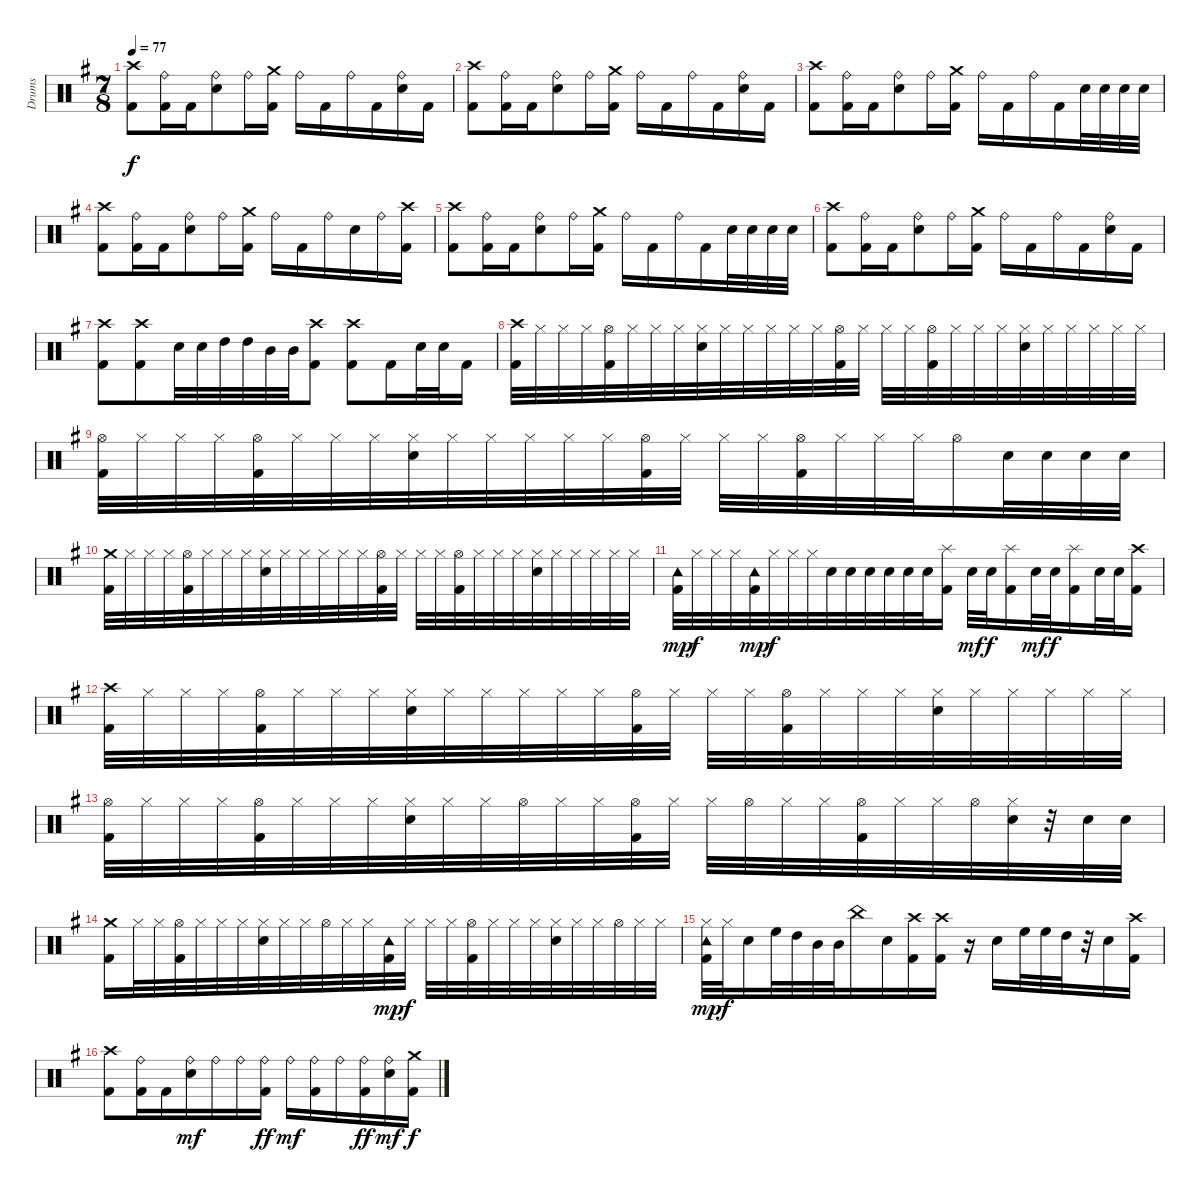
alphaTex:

\track ("Drums" "Drums") {instrument percussion}
\staff {score}
\articulation defaults
\ts (7 8)
\tempo 77
\clef neutral
\ks g
("Crash high (hit)" "Kick (hit) 2").8{dy f} ("Ride (bell)" "Kick (hit) 2").16 "Kick (hit) 2".16 ("Ride (bell)" "Electric Snare (hit)").8 "Ride (bell)".16 ("Kick (hit) 2" "Crash medium (hit)").16 "Ride (bell)".16 "Kick (hit) 2".16 "Ride (bell)".16 "Kick (hit) 2".16 ("Ride (bell)" "Electric Snare (hit)").16 "Kick (hit) 2".16 |
("Crash high (hit)" "Kick (hit) 2").8 ("Ride (bell)" "Kick (hit) 2").16 "Kick (hit) 2".16 ("Ride (bell)" "Electric Snare (hit)").8 "Ride (bell)".16 ("Kick (hit) 2" "Crash medium (hit)").16 "Ride (bell)".16 "Kick (hit) 2".16 "Ride (bell)".16 "Kick (hit) 2".16 ("Ride (bell)" "Electric Snare (hit)").16 "Kick (hit) 2".16 |
("Kick (hit) 2" "Crash high (hit)").8 ("Ride (bell)" "Kick (hit) 2").16 "Kick (hit) 2".16 ("Ride (bell)" "Electric Snare (hit)").8 "Ride (bell)".16 ("Kick (hit) 2" "Crash medium (hit)").16 "Ride (bell)".16 "Kick (hit) 2".16 "Ride (bell)".16 "Kick (hit) 2".16 "Electric Snare (hit)".32 "Electric Snare (hit)".32 "Electric Snare (hit)".32 "Electric Snare (hit)".32 |
("Crash high (hit)" "Kick (hit) 2").8 ("Ride (bell)" "Kick (hit) 2").16 "Kick (hit) 2".16 ("Ride (bell)" "Electric Snare (hit)").8 "Ride (bell)".16 ("Kick (hit) 2" "Crash medium (hit)").16 "Ride (bell)".16 "Kick (hit) 2".16 "Ride (bell)".16 "Electric Snare (hit)".16 "Ride (bell)".16 ("Kick (hit) 2" "Crash high (hit)").16 |
("Kick (hit) 2" "Crash high (hit)").8 ("Ride (bell)" "Kick (hit) 2").16 "Kick (hit) 2".16 ("Ride (bell)" "Electric Snare (hit)").8 "Ride (bell)".16 ("Kick (hit) 2" "Crash medium (hit)").16 "Ride (bell)".16 "Kick (hit) 2".16 "Ride (bell)".16 "Kick (hit) 2".16 "Electric Snare (hit)".32 "Electric Snare (hit)".32 "Electric Snare (hit)".32 "Electric Snare (hit)".32 |
("Kick (hit) 2" "Crash high (hit)").8 ("Ride (bell)" "Kick (hit) 2").16 "Kick (hit) 2".16 ("Ride (bell)" "Electric Snare (hit)").8 "Ride (bell)".16 ("Kick (hit) 2" "Crash medium (hit)").16 "Ride (bell)".16 "Kick (hit) 2".16 "Ride (bell)".16 "Kick (hit) 2".16 ("Ride (bell)" "Electric Snare (hit)").16 "Kick (hit) 2".16 |
("Kick (hit) 2" "Crash high (hit)").8 ("Crash high (hit)" "Kick (hit) 2").8 "Electric Snare (hit)".32 "Electric Snare (hit)".32 "High Tom (hit)".32 "High Tom (hit)".32 "Mid Tom (hit)".32 "Mid Tom (hit)".32 ("Kick (hit) 2" "Crash high (hit)").8 ("Crash high (hit)" "Kick (hit) 2").8 "Kick (hit) 2".16 "Electric Snare (hit)".32 "Electric Snare (hit)".32 "Kick (hit) 2".16 |
("Kick (hit) 2" "Crash high (hit)").32 "Hi-Hat (closed)".32 "Hi-Hat (closed)".32 "Hi-Hat (closed)".32 ("Hi-Hat (open)" "Kick (hit) 2").32 "Hi-Hat (closed)".32 "Hi-Hat (closed)".32 "Hi-Hat (closed)".32 ("Hi-Hat (closed)" "Electric Snare (hit)").32 "Hi-Hat (closed)".32 "Hi-Hat (closed)".32 "Hi-Hat (closed)".32 "Hi-Hat (closed)".32 "Hi-Hat (closed)".32 ("Kick (hit) 2" "Hi-Hat (open)").32 "Hi-Hat (closed)".32 "Hi-Hat (closed)".32 "Hi-Hat (closed)".32 ("Kick (hit) 2" "Hi-Hat (open)").32 "Hi-Hat (closed)".32 "Hi-Hat (closed)".32 "Hi-Hat (closed)".32 ("Hi-Hat (closed)" "Electric Snare (hit)").32 "Hi-Hat (closed)".32 "Hi-Hat (closed)".32 "Hi-Hat (closed)".32 "Hi-Hat (closed)".32 "Hi-Hat (closed)".32 |
("Kick (hit) 2" "Hi-Hat (open)").32 "Hi-Hat (closed)".32 "Hi-Hat (closed)".32 "Hi-Hat (closed)".32 ("Kick (hit) 2" "Hi-Hat (open)").32 "Hi-Hat (closed)".32 "Hi-Hat (closed)".32 "Hi-Hat (closed)".32 ("Hi-Hat (closed)" "Electric Snare (hit)").32 "Hi-Hat (closed)".32 "Hi-Hat (closed)".32 "Hi-Hat (closed)".32 "Hi-Hat (closed)".32 "Hi-Hat (closed)".32 ("Kick (hit) 2" "Hi-Hat (open)").32 "Hi-Hat (closed)".32 "Hi-Hat (closed)".32 "Hi-Hat (closed)".32 ("Kick (hit) 2" "Hi-Hat (open)").32 "Hi-Hat (closed)".32 "Hi-Hat (closed)".32 "Hi-Hat (closed)".32 "Hi-Hat (open)".16 "Electric Snare (hit)".32 "Electric Snare (hit)".32 "Electric Snare (hit)".32 "Electric Snare (hit)".32 |
("Kick (hit) 2" "Crash medium (hit)").32 "Hi-Hat (closed)".32 "Hi-Hat (closed)".32 "Hi-Hat (closed)".32 ("Hi-Hat (open)" "Kick (hit) 2").32 "Hi-Hat (closed)".32 "Hi-Hat (closed)".32 "Hi-Hat (closed)".32 ("Hi-Hat (closed)" "Electric Snare (hit)").32 "Hi-Hat (closed)".32 "Hi-Hat (closed)".32 "Hi-Hat (closed)".32 "Hi-Hat (closed)".32 "Hi-Hat (closed)".32 ("Kick (hit) 2" "Hi-Hat (open)").32 "Hi-Hat (closed)".32 "Hi-Hat (closed)".32 "Hi-Hat (closed)".32 ("Kick (hit) 2" "Hi-Hat (open)").32 "Hi-Hat (closed)".32 "Hi-Hat (closed)".32 "Hi-Hat (closed)".32 ("Hi-Hat (closed)" "Electric Snare (hit)").32 "Hi-Hat (closed)".32 "Hi-Hat (closed)".32 "Hi-Hat (closed)".32 "Hi-Hat (closed)".32 "Hi-Hat (closed)".32 |
("Kick (hit) 2" "Tambourine (hit)").32{dy mp} "Hi-Hat (closed)".32{dy f} "Hi-Hat (closed)".32 "Hi-Hat (closed)".32 ("Kick (hit) 2" "Tambourine (hit)").32{dy mp} "Hi-Hat (closed)".32{dy f} "Hi-Hat (closed)".32 "Hi-Hat (closed)".32 "Electric Snare (hit)".32 "Electric Snare (hit)".32 "Electric Snare (hit)".32 "Electric Snare (hit)".32 "Electric Snare (hit)".32 "Electric Snare (hit)".32 ("Kick (hit) 2" "Splash (hit)").16 "Electric Snare (hit)".32{dy mf} "Electric Snare (hit)".32{dy f} ("Splash (hit)" "Kick (hit) 2").16 "Electric Snare (hit)".32{dy mf} "Electric Snare (hit)".32{dy f} ("Splash (hit)" "Kick (hit) 2").16 "Electric Snare (hit)".32 "Electric Snare (hit)".32 ("Kick (hit) 2" "Crash high (hit)").16 |
("Crash high (hit)" "Kick (hit) 2").32 "Hi-Hat (closed)".32 "Hi-Hat (closed)".32 "Hi-Hat (closed)".32 ("Hi-Hat (open)" "Kick (hit) 2").32 "Hi-Hat (closed)".32 "Hi-Hat (closed)".32 "Hi-Hat (closed)".32 ("Hi-Hat (closed)" "Electric Snare (hit)").32 "Hi-Hat (closed)".32 "Hi-Hat (closed)".32 "Hi-Hat (closed)".32 "Hi-Hat (closed)".32 "Hi-Hat (closed)".32 ("Kick (hit) 2" "Hi-Hat (open)").32 "Hi-Hat (closed)".32 "Hi-Hat (closed)".32 "Hi-Hat (closed)".32 ("Kick (hit) 2" "Hi-Hat (open)").32 "Hi-Hat (closed)".32 "Hi-Hat (closed)".32 "Hi-Hat (closed)".32 ("Hi-Hat (closed)" "Electric Snare (hit)").32 "Hi-Hat (closed)".32 "Hi-Hat (closed)".32 "Hi-Hat (closed)".32 "Hi-Hat (closed)".32 "Hi-Hat (closed)".32 |
("Kick (hit) 2" "Hi-Hat (open)").32 "Hi-Hat (closed)".32 "Hi-Hat (closed)".32 "Hi-Hat (closed)".32 ("Kick (hit) 2" "Hi-Hat (open)").32 "Hi-Hat (closed)".32 "Hi-Hat (closed)".32 "Hi-Hat (closed)".32 ("Hi-Hat (closed)" "Electric Snare (hit)").32 "Hi-Hat (closed)".32 "Hi-Hat (closed)".32 "Hi-Hat (open)".32 "Hi-Hat (closed)".32 "Hi-Hat (closed)".32 ("Kick (hit) 2" "Hi-Hat (open)").32 "Hi-Hat (closed)".32 "Hi-Hat (closed)".32 "Hi-Hat (open)".32 "Hi-Hat (closed)".32 "Hi-Hat (closed)".32 ("Hi-Hat (open)" "Kick (hit) 2").32 "Hi-Hat (closed)".32 "Hi-Hat (closed)".32 "Hi-Hat (open)".32 ("Electric Snare (hit)" "Hi-Hat (closed)").32 r.32 "Electric Snare (hit)".32 "Electric Snare (hit)".32 |
("Kick (hit) 2" "Crash medium (hit)").16 "Hi-Hat (closed)".32 "Hi-Hat (closed)".32 ("Hi-Hat (open)" "Kick (hit) 2").32 "Hi-Hat (closed)".32 "Hi-Hat (closed)".32 "Hi-Hat (closed)".32 ("Hi-Hat (closed)" "Electric Snare (hit)").32 "Hi-Hat (closed)".32 "Hi-Hat (closed)".32 "Hi-Hat (open)".32 "Hi-Hat (closed)".32 "Hi-Hat (closed)".32 ("Kick (hit) 2" "Tambourine (hit)").32{dy mp} "Hi-Hat (closed)".32{dy f} "Hi-Hat (closed)".32 "Hi-Hat (closed)".32 ("Kick (hit) 2" "Hi-Hat (open)").32 "Hi-Hat (closed)".32 "Hi-Hat (closed)".32 "Hi-Hat (closed)".32 ("Hi-Hat (closed)" "Electric Snare (hit)").32 "Hi-Hat (closed)".32 "Hi-Hat (closed)".32 "Hi-Hat (open)".32 "Hi-Hat (closed)".32 "Hi-Hat (closed)".32 |
("Kick (hit) 2" "Hi-Hat (closed)" "Tambourine (hit)").32{dy mp} "Hi-Hat (closed)".32{dy f} "Electric Snare (hit)".16 "High Floor Tom (hit)".32 "High Tom (hit)".32 "Mid Tom (hit)".32 "Mid Tom (hit)".32 "China (hit)".16 "Electric Snare (hit)".16 ("Kick (hit) 2" "Crash high (hit)").16 ("Kick (hit) 2" "Crash high (hit)").16 r.16 "Electric Snare (hit)".16 "High Floor Tom (hit)".32 "High Floor Tom (hit)".32 "High Tom (hit)".32 r.32 "Electric Snare (hit)".16 ("Kick (hit) 2" "Crash high (hit)").16 |
("Crash high (hit)" "Kick (hit) 2").8 ("Ride (bell)" "Kick (hit) 2").16 "Kick (hit) 2".16 ("Electric Snare (hit)" "Ride (bell)").16{dy mf} "Ride (bell)".16 "Ride (bell)".16 ("Kick (hit) 2" "Ride (bell)").16{dy ff} "Ride (bell)".16{dy mf} ("Kick (hit) 2" "Ride (bell)").16 "Ride (bell)".16 ("Kick (hit) 2" "Ride (bell)").16{dy ff} ("Electric Snare (hit)" "Ride (bell)").16{dy mf} ("Kick (hit) 2" "Crash medium (hit)").16{dy f}
